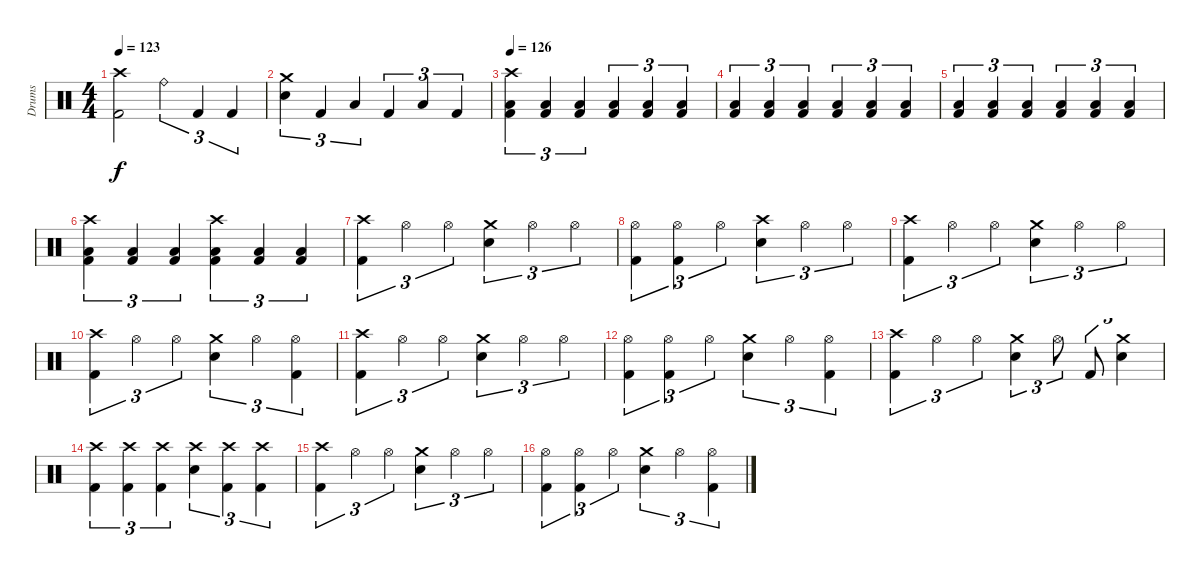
\track ("Drums" "Drums") {instrument percussion}
\staff {score}
\articulation defaults
\ts (4 4)
\tempo 123
\clef neutral
\ks c
("Crash high (hit)" "Kick (hit) 2").2{dy f} "Ride (bell)".4{tu (3 2)} "Kick (hit) 2".4{tu (3 2)} "Kick (hit) 2".4{tu (3 2)} |
("Crash medium (hit)" "Electric Snare (hit)").4{tu (3 2)} "Kick (hit) 2".4{tu (3 2)} "Low Tom (hit)".4{tu (3 2)} "Kick (hit) 2".4{tu (3 2)} "Low Tom (hit)".4{tu (3 2)} "Kick (hit) 2".4{tu (3 2)} |
\tempo 126
("Crash high (hit)" "Low Tom (hit)" "Kick (hit) 2").4{tu (3 2)} ("Low Tom (hit)" "Kick (hit) 2").4{tu (3 2)} ("Low Tom (hit)" "Kick (hit) 2").4{tu (3 2)} ("Low Tom (hit)" "Kick (hit) 2").4{tu (3 2)} ("Low Tom (hit)" "Kick (hit) 2").4{tu (3 2)} ("Low Tom (hit)" "Kick (hit) 2").4{tu (3 2)} |
("Low Tom (hit)" "Kick (hit) 2").4{tu (3 2)} ("Low Tom (hit)" "Kick (hit) 2").4{tu (3 2)} ("Low Tom (hit)" "Kick (hit) 2").4{tu (3 2)} ("Low Tom (hit)" "Kick (hit) 2").4{tu (3 2)} ("Low Tom (hit)" "Kick (hit) 2").4{tu (3 2)} ("Low Tom (hit)" "Kick (hit) 2").4{tu (3 2)} |
("Low Tom (hit)" "Kick (hit) 2").4{tu (3 2)} ("Low Tom (hit)" "Kick (hit) 2").4{tu (3 2)} ("Low Tom (hit)" "Kick (hit) 2").4{tu (3 2)} ("Low Tom (hit)" "Kick (hit) 2").4{tu (3 2)} ("Low Tom (hit)" "Kick (hit) 2").4{tu (3 2)} ("Low Tom (hit)" "Kick (hit) 2").4{tu (3 2)} |
("Crash high (hit)" "Low Tom (hit)" "Kick (hit) 2").4{tu (3 2)} ("Low Tom (hit)" "Kick (hit) 2").4{tu (3 2)} ("Low Tom (hit)" "Kick (hit) 2").4{tu (3 2)} ("Crash high (hit)" "Low Tom (hit)" "Kick (hit) 2").4{tu (3 2)} ("Low Tom (hit)" "Kick (hit) 2").4{tu (3 2)} ("Low Tom (hit)" "Kick (hit) 2").4{tu (3 2)} |
("Crash high (hit)" "Kick (hit) 2").4{tu (3 2)} "Hi-Hat (open)".4{tu (3 2)} "Hi-Hat (open)".4{tu (3 2)} ("Crash medium (hit)" "Electric Snare (hit)").4{tu (3 2)} "Hi-Hat (open)".4{tu (3 2)} "Hi-Hat (open)".4{tu (3 2)} |
("Hi-Hat (open)" "Kick (hit) 2").4{tu (3 2)} ("Hi-Hat (open)" "Kick (hit) 2").4{tu (3 2)} "Hi-Hat (open)".4{tu (3 2)} ("Crash high (hit)" "Electric Snare (hit)").4{tu (3 2)} "Hi-Hat (open)".4{tu (3 2)} "Hi-Hat (open)".4{tu (3 2)} |
("Crash high (hit)" "Kick (hit) 2").4{tu (3 2)} "Hi-Hat (open)".4{tu (3 2)} "Hi-Hat (open)".4{tu (3 2)} ("Crash medium (hit)" "Electric Snare (hit)").4{tu (3 2)} "Hi-Hat (open)".4{tu (3 2)} "Hi-Hat (open)".4{tu (3 2)} |
("Crash high (hit)" "Kick (hit) 2").4{tu (3 2)} "Hi-Hat (open)".4{tu (3 2)} "Hi-Hat (open)".4{tu (3 2)} ("Crash medium (hit)" "Electric Snare (hit)").4{tu (3 2)} "Hi-Hat (open)".4{tu (3 2)} ("Hi-Hat (open)" "Kick (hit) 2").4{tu (3 2)} |
("Crash high (hit)" "Kick (hit) 2").4{tu (3 2)} "Hi-Hat (open)".4{tu (3 2)} "Hi-Hat (open)".4{tu (3 2)} ("Crash medium (hit)" "Electric Snare (hit)").4{tu (3 2)} "Hi-Hat (open)".4{tu (3 2)} "Hi-Hat (open)".4{tu (3 2)} |
("Hi-Hat (open)" "Kick (hit) 2").4{tu (3 2)} ("Hi-Hat (open)" "Kick (hit) 2").4{tu (3 2)} "Hi-Hat (open)".4{tu (3 2)} ("Crash medium (hit)" "Electric Snare (hit)").4{tu (3 2)} "Hi-Hat (open)".4{tu (3 2)} ("Hi-Hat (open)" "Kick (hit) 2").4{tu (3 2)} |
("Crash high (hit)" "Kick (hit) 2").4{tu (3 2)} "Hi-Hat (open)".4{tu (3 2)} "Hi-Hat (open)".4{tu (3 2)} ("Crash medium (hit)" "Electric Snare (hit)").4{tu (3 2)} "Hi-Hat (open)".8{tu (3 2)} "Kick (hit) 2".8{tu (3 2)} ("Crash medium (hit)" "Electric Snare (hit)").4{tu (3 2)} |
("Crash high (hit)" "Kick (hit) 2").4{tu (3 2)} ("Crash high (hit)" "Kick (hit) 2").4{tu (3 2)} ("Crash high (hit)" "Kick (hit) 2").4{tu (3 2)} ("Crash high (hit)" "Electric Snare (hit)").4{tu (3 2)} ("Crash high (hit)" "Kick (hit) 2").4{tu (3 2)} ("Crash high (hit)" "Kick (hit) 2").4{tu (3 2)} |
("Crash high (hit)" "Kick (hit) 2").4{tu (3 2)} "Hi-Hat (open)".4{tu (3 2)} "Hi-Hat (open)".4{tu (3 2)} ("Crash medium (hit)" "Electric Snare (hit)").4{tu (3 2)} "Hi-Hat (open)".4{tu (3 2)} "Hi-Hat (open)".4{tu (3 2)} |
("Hi-Hat (open)" "Kick (hit) 2").4{tu (3 2)} ("Hi-Hat (open)" "Kick (hit) 2").4{tu (3 2)} "Hi-Hat (open)".4{tu (3 2)} ("Crash medium (hit)" "Electric Snare (hit)").4{tu (3 2)} "Hi-Hat (open)".4{tu (3 2)} ("Hi-Hat (open)" "Kick (hit) 2").4{tu (3 2)}
